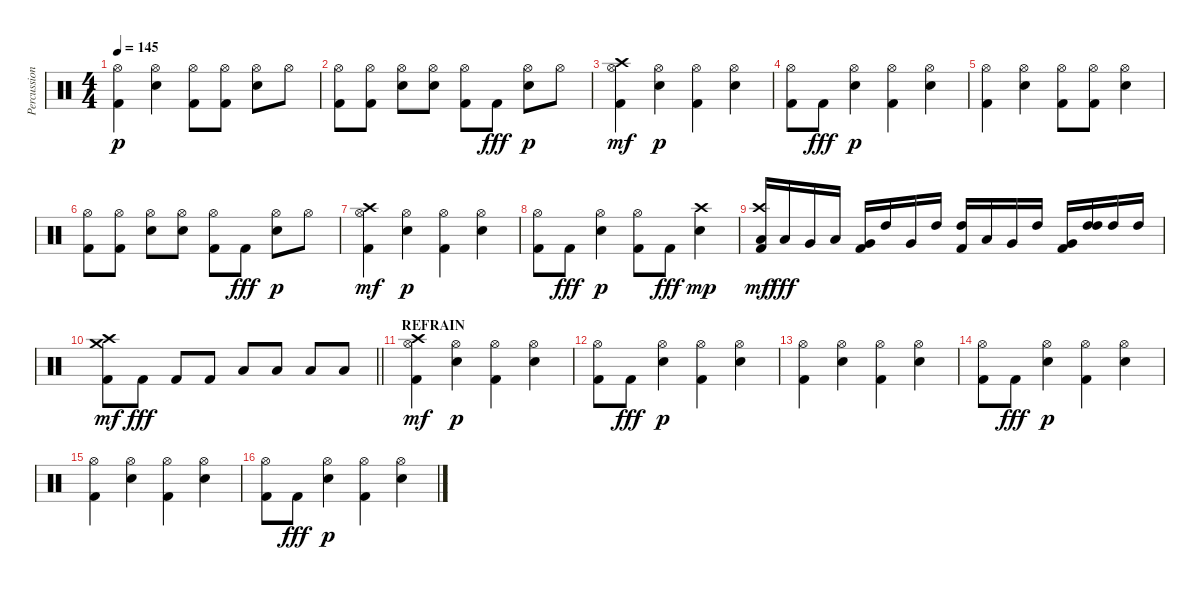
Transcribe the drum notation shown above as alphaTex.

\track ("Percussions" "Percussion") {instrument percussion}
\staff {score}
\articulation defaults
\ts (4 4)
\tempo 145
\clef neutral
\ks c
("Kick (hit) 2" "Hi-Hat (open)").4{dy p} ("Snare (hit) 2" "Hi-Hat (open)").4 ("Kick (hit) 2" "Hi-Hat (open)").8 ("Kick (hit) 2" "Hi-Hat (open)").8 ("Snare (hit) 2" "Hi-Hat (open)").8 "Hi-Hat (open)".8 |
("Kick (hit) 2" "Hi-Hat (open)").8 ("Kick (hit) 2" "Hi-Hat (open)").8 ("Snare (hit) 2" "Hi-Hat (open)").8 ("Snare (hit) 2" "Hi-Hat (open)").8 ("Kick (hit) 2" "Hi-Hat (open)").8 "Kick (hit) 2".8{dy fff} ("Snare (hit) 2" "Hi-Hat (open)").8{dy p} "Hi-Hat (open)".8 |
("Kick (hit) 2" "Hi-Hat (open)" "Crash high (hit)").4{dy mf} ("Snare (hit) 2" "Hi-Hat (open)").4{dy p} ("Kick (hit) 2" "Hi-Hat (open)").4 ("Snare (hit) 2" "Hi-Hat (open)").4 |
("Kick (hit) 2" "Hi-Hat (open)").8 "Kick (hit) 2".8{dy fff} ("Snare (hit) 2" "Hi-Hat (open)").4{dy p} ("Kick (hit) 2" "Hi-Hat (open)").4 ("Snare (hit) 2" "Hi-Hat (open)").4 |
("Kick (hit) 2" "Hi-Hat (open)").4 ("Snare (hit) 2" "Hi-Hat (open)").4 ("Kick (hit) 2" "Hi-Hat (open)").8 ("Kick (hit) 2" "Hi-Hat (open)").8 ("Snare (hit) 2" "Hi-Hat (open)").4 |
("Kick (hit) 2" "Hi-Hat (open)").8 ("Kick (hit) 2" "Hi-Hat (open)").8 ("Snare (hit) 2" "Hi-Hat (open)").8 ("Snare (hit) 2" "Hi-Hat (open)").8 ("Kick (hit) 2" "Hi-Hat (open)").8 "Kick (hit) 2".8{dy fff} ("Snare (hit) 2" "Hi-Hat (open)").8{dy p} "Hi-Hat (open)".8 |
("Kick (hit) 2" "Hi-Hat (open)" "Crash high (hit)").4{dy mf} ("Snare (hit) 2" "Hi-Hat (open)").4{dy p} ("Kick (hit) 2" "Hi-Hat (open)").4 ("Snare (hit) 2" "Hi-Hat (open)").4 |
("Kick (hit) 2" "Hi-Hat (open)").8 "Kick (hit) 2".8{dy fff} ("Snare (hit) 2" "Hi-Hat (open)").4{dy p} ("Kick (hit) 2" "Hi-Hat (open)").8 "Kick (hit) 2".8{dy fff} ("Snare (hit) 2" "Crash high (hit)").4{dy mp} |
("Low Tom (hit)" "Kick (hit) 2" "Crash high (hit)").16{dy mf} "Low Tom (hit)".16{dy fff} "Very Low Tom (hit)".16 "Low Tom (hit)".16 ("Very Low Tom (hit)" "Kick (hit) 2").16 "High Tom (hit)".16 "Very Low Tom (hit)".16 "High Tom (hit)".16 ("High Tom (hit)" "Kick (hit) 2").16 "Low Tom (hit)".16 "Very Low Tom (hit)".16 "High Tom (hit)".16 ("Very Low Tom (hit)" "Kick (hit) 2").16 ("High Tom (hit)" "High Tom (hit)").16 "High Tom (hit)".16 "High Tom (hit)".16 |
\barLineRight lightlight
("Kick (hit) 2" "Crash high (hit)" "Crash medium (hit)").8{dy mf} "Kick (hit) 2".8{dy fff} "Kick (hit) 2".8 "Kick (hit) 2".8 "Low Tom (hit)".8 "Low Tom (hit)".8 "Low Tom (hit)".8 "Low Tom (hit)".8 |
\section ("" "REFRAIN")
("Kick (hit) 2" "Hi-Hat (open)" "Crash high (hit)").4{dy mf} ("Snare (hit) 2" "Hi-Hat (open)").4{dy p} ("Kick (hit) 2" "Hi-Hat (open)").4 ("Snare (hit) 2" "Hi-Hat (open)").4 |
("Kick (hit) 2" "Hi-Hat (open)").8 "Kick (hit) 2".8{dy fff} ("Snare (hit) 2" "Hi-Hat (open)").4{dy p} ("Kick (hit) 2" "Hi-Hat (open)").4 ("Snare (hit) 2" "Hi-Hat (open)").4 |
("Kick (hit) 2" "Hi-Hat (open)").4 ("Snare (hit) 2" "Hi-Hat (open)").4 ("Kick (hit) 2" "Hi-Hat (open)").4 ("Snare (hit) 2" "Hi-Hat (open)").4 |
("Kick (hit) 2" "Hi-Hat (open)").8 "Kick (hit) 2".8{dy fff} ("Snare (hit) 2" "Hi-Hat (open)").4{dy p} ("Kick (hit) 2" "Hi-Hat (open)").4 ("Snare (hit) 2" "Hi-Hat (open)").4 |
("Kick (hit) 2" "Hi-Hat (open)").4 ("Snare (hit) 2" "Hi-Hat (open)").4 ("Kick (hit) 2" "Hi-Hat (open)").4 ("Snare (hit) 2" "Hi-Hat (open)").4 |
("Kick (hit) 2" "Hi-Hat (open)").8 "Kick (hit) 2".8{dy fff} ("Snare (hit) 2" "Hi-Hat (open)").4{dy p} ("Kick (hit) 2" "Hi-Hat (open)").4 ("Snare (hit) 2" "Hi-Hat (open)").4
